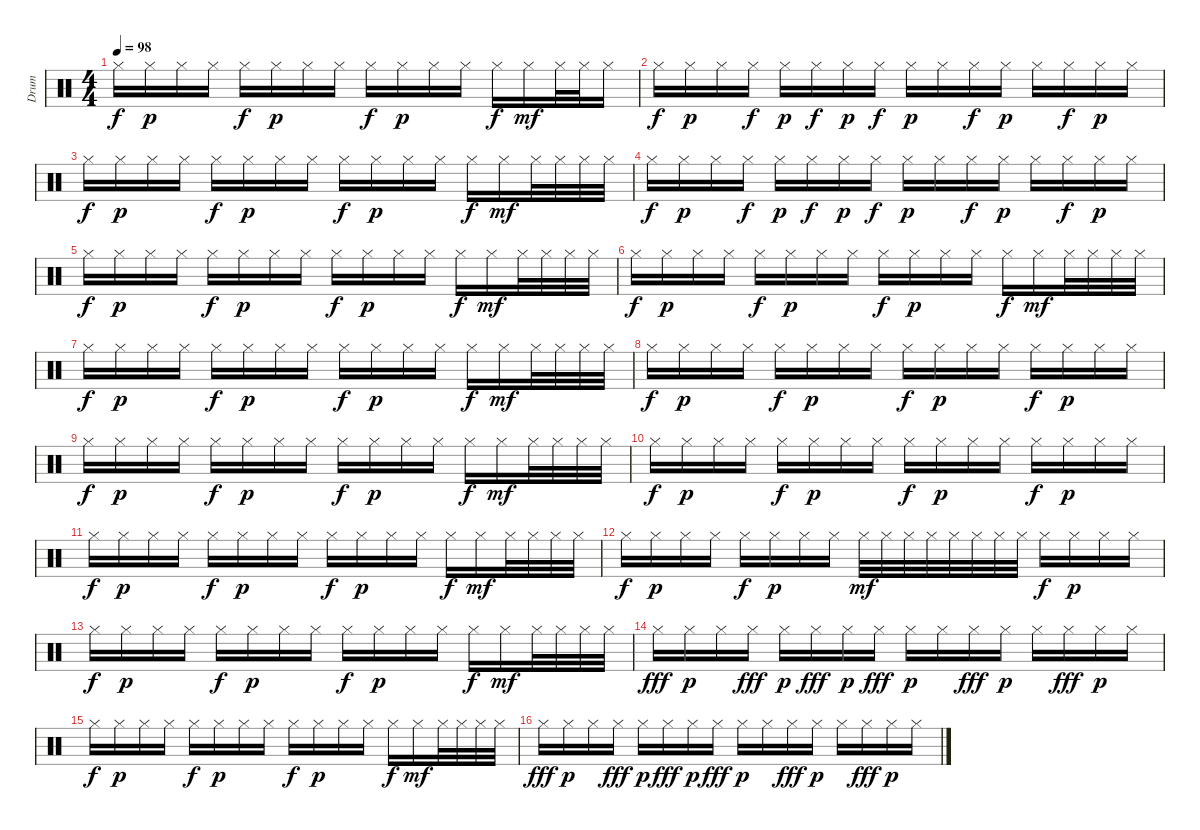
\track ("Drum" "Drum") {instrument percussion}
\staff {score}
\articulation defaults
\ts (4 4)
\tempo 98
\clef neutral
\ks c "Hi-Hat (closed)".16{dy f} "Hi-Hat (closed)".16{dy p} "Hi-Hat (closed)".16 "Hi-Hat (closed)".16 "Hi-Hat (closed)".16{dy f} "Hi-Hat (closed)".16{dy p} "Hi-Hat (closed)".16 "Hi-Hat (closed)".16 "Hi-Hat (closed)".16{dy f} "Hi-Hat (closed)".16{dy p} "Hi-Hat (closed)".16 "Hi-Hat (closed)".16 "Hi-Hat (closed)".16{dy f} "Hi-Hat (closed)".16{dy mf} "Hi-Hat (closed)".32 "Hi-Hat (closed)".32 "Hi-Hat (closed)".16
|
"Hi-Hat (closed)".16{dy f} "Hi-Hat (closed)".16{dy p} "Hi-Hat (closed)".16 "Hi-Hat (closed)".16{dy f} "Hi-Hat (closed)".16{dy p} "Hi-Hat (closed)".16{dy f} "Hi-Hat (closed)".16{dy p} "Hi-Hat (closed)".16{dy f} "Hi-Hat (closed)".16{dy p} "Hi-Hat (closed)".16 "Hi-Hat (closed)".16{dy f} "Hi-Hat (closed)".16{dy p} "Hi-Hat (closed)".16 "Hi-Hat (closed)".16{dy f} "Hi-Hat (closed)".16{dy p} "Hi-Hat (closed)".16 |
"Hi-Hat (closed)".16{dy f} "Hi-Hat (closed)".16{dy p} "Hi-Hat (closed)".16 "Hi-Hat (closed)".16 "Hi-Hat (closed)".16{dy f} "Hi-Hat (closed)".16{dy p} "Hi-Hat (closed)".16 "Hi-Hat (closed)".16 "Hi-Hat (closed)".16{dy f} "Hi-Hat (closed)".16{dy p} "Hi-Hat (closed)".16 "Hi-Hat (closed)".16 "Hi-Hat (closed)".16{dy f} "Hi-Hat (closed)".16{dy mf} "Hi-Hat (closed)".32 "Hi-Hat (closed)".32 "Hi-Hat (closed)".32 "Hi-Hat (closed)".32 |
"Hi-Hat (closed)".16{dy f} "Hi-Hat (closed)".16{dy p} "Hi-Hat (closed)".16 "Hi-Hat (closed)".16{dy f} "Hi-Hat (closed)".16{dy p} "Hi-Hat (closed)".16{dy f} "Hi-Hat (closed)".16{dy p} "Hi-Hat (closed)".16{dy f} "Hi-Hat (closed)".16{dy p} "Hi-Hat (closed)".16 "Hi-Hat (closed)".16{dy f} "Hi-Hat (closed)".16{dy p} "Hi-Hat (closed)".16 "Hi-Hat (closed)".16{dy f} "Hi-Hat (closed)".16{dy p} "Hi-Hat (closed)".16 |
"Hi-Hat (closed)".16{dy f} "Hi-Hat (closed)".16{dy p} "Hi-Hat (closed)".16 "Hi-Hat (closed)".16 "Hi-Hat (closed)".16{dy f} "Hi-Hat (closed)".16{dy p} "Hi-Hat (closed)".16 "Hi-Hat (closed)".16 "Hi-Hat (closed)".16{dy f} "Hi-Hat (closed)".16{dy p} "Hi-Hat (closed)".16 "Hi-Hat (closed)".16 "Hi-Hat (closed)".16{dy f} "Hi-Hat (closed)".16{dy mf} "Hi-Hat (closed)".32 "Hi-Hat (closed)".32 "Hi-Hat (closed)".32 "Hi-Hat (closed)".32 |
"Hi-Hat (closed)".16{dy f} "Hi-Hat (closed)".16{dy p} "Hi-Hat (closed)".16 "Hi-Hat (closed)".16 "Hi-Hat (closed)".16{dy f} "Hi-Hat (closed)".16{dy p} "Hi-Hat (closed)".16 "Hi-Hat (closed)".16 "Hi-Hat (closed)".16{dy f} "Hi-Hat (closed)".16{dy p} "Hi-Hat (closed)".16 "Hi-Hat (closed)".16 "Hi-Hat (closed)".16{dy f} "Hi-Hat (closed)".16{dy mf} "Hi-Hat (closed)".32 "Hi-Hat (closed)".32 "Hi-Hat (closed)".32 "Hi-Hat (closed)".32 |
"Hi-Hat (closed)".16{dy f} "Hi-Hat (closed)".16{dy p} "Hi-Hat (closed)".16 "Hi-Hat (closed)".16 "Hi-Hat (closed)".16{dy f} "Hi-Hat (closed)".16{dy p} "Hi-Hat (closed)".16 "Hi-Hat (closed)".16 "Hi-Hat (closed)".16{dy f} "Hi-Hat (closed)".16{dy p} "Hi-Hat (closed)".16 "Hi-Hat (closed)".16 "Hi-Hat (closed)".16{dy f} "Hi-Hat (closed)".16{dy mf} "Hi-Hat (closed)".32 "Hi-Hat (closed)".32 "Hi-Hat (closed)".32 "Hi-Hat (closed)".32 |
"Hi-Hat (closed)".16{dy f} "Hi-Hat (closed)".16{dy p} "Hi-Hat (closed)".16 "Hi-Hat (closed)".16 "Hi-Hat (closed)".16{dy f} "Hi-Hat (closed)".16{dy p} "Hi-Hat (closed)".16 "Hi-Hat (closed)".16 "Hi-Hat (closed)".16{dy f} "Hi-Hat (closed)".16{dy p} "Hi-Hat (closed)".16 "Hi-Hat (closed)".16 "Hi-Hat (closed)".16{dy f} "Hi-Hat (closed)".16{dy p} "Hi-Hat (closed)".16 "Hi-Hat (closed)".16 |
"Hi-Hat (closed)".16{dy f} "Hi-Hat (closed)".16{dy p} "Hi-Hat (closed)".16 "Hi-Hat (closed)".16 "Hi-Hat (closed)".16{dy f} "Hi-Hat (closed)".16{dy p} "Hi-Hat (closed)".16 "Hi-Hat (closed)".16 "Hi-Hat (closed)".16{dy f} "Hi-Hat (closed)".16{dy p} "Hi-Hat (closed)".16 "Hi-Hat (closed)".16 "Hi-Hat (closed)".16{dy f} "Hi-Hat (closed)".16{dy mf} "Hi-Hat (closed)".32 "Hi-Hat (closed)".32 "Hi-Hat (closed)".32 "Hi-Hat (closed)".32 |
"Hi-Hat (closed)".16{dy f} "Hi-Hat (closed)".16{dy p} "Hi-Hat (closed)".16 "Hi-Hat (closed)".16 "Hi-Hat (closed)".16{dy f} "Hi-Hat (closed)".16{dy p} "Hi-Hat (closed)".16 "Hi-Hat (closed)".16 "Hi-Hat (closed)".16{dy f} "Hi-Hat (closed)".16{dy p} "Hi-Hat (closed)".16 "Hi-Hat (closed)".16 "Hi-Hat (closed)".16{dy f} "Hi-Hat (closed)".16{dy p} "Hi-Hat (closed)".16 "Hi-Hat (closed)".16 |
"Hi-Hat (closed)".16{dy f} "Hi-Hat (closed)".16{dy p} "Hi-Hat (closed)".16 "Hi-Hat (closed)".16 "Hi-Hat (closed)".16{dy f} "Hi-Hat (closed)".16{dy p} "Hi-Hat (closed)".16 "Hi-Hat (closed)".16 "Hi-Hat (closed)".16{dy f} "Hi-Hat (closed)".16{dy p} "Hi-Hat (closed)".16 "Hi-Hat (closed)".16 "Hi-Hat (closed)".16{dy f} "Hi-Hat (closed)".16{dy mf} "Hi-Hat (closed)".32 "Hi-Hat (closed)".32 "Hi-Hat (closed)".32 "Hi-Hat (closed)".32 |
"Hi-Hat (closed)".16{dy f} "Hi-Hat (closed)".16{dy p} "Hi-Hat (closed)".16 "Hi-Hat (closed)".16 "Hi-Hat (closed)".16{dy f} "Hi-Hat (closed)".16{dy p} "Hi-Hat (closed)".16 "Hi-Hat (closed)".16 "Hi-Hat (closed)".32{dy mf} "Hi-Hat (closed)".32 "Hi-Hat (closed)".32 "Hi-Hat (closed)".32 "Hi-Hat (closed)".32 "Hi-Hat (closed)".32 "Hi-Hat (closed)".32 "Hi-Hat (closed)".32 "Hi-Hat (closed)".16{dy f} "Hi-Hat (closed)".16{dy p} "Hi-Hat (closed)".16 "Hi-Hat (closed)".16 |
"Hi-Hat (closed)".16{dy f} "Hi-Hat (closed)".16{dy p} "Hi-Hat (closed)".16 "Hi-Hat (closed)".16 "Hi-Hat (closed)".16{dy f} "Hi-Hat (closed)".16{dy p} "Hi-Hat (closed)".16 "Hi-Hat (closed)".16 "Hi-Hat (closed)".16{dy f} "Hi-Hat (closed)".16{dy p} "Hi-Hat (closed)".16 "Hi-Hat (closed)".16 "Hi-Hat (closed)".16{dy f} "Hi-Hat (closed)".16{dy mf} "Hi-Hat (closed)".32 "Hi-Hat (closed)".32 "Hi-Hat (closed)".32 "Hi-Hat (closed)".32 |
"Hi-Hat (closed)".16{dy fff} "Hi-Hat (closed)".16{dy p} "Hi-Hat (closed)".16 "Hi-Hat (closed)".16{dy fff} "Hi-Hat (closed)".16{dy p} "Hi-Hat (closed)".16{dy fff} "Hi-Hat (closed)".16{dy p} "Hi-Hat (closed)".16{dy fff} "Hi-Hat (closed)".16{dy p} "Hi-Hat (closed)".16 "Hi-Hat (closed)".16{dy fff} "Hi-Hat (closed)".16{dy p} "Hi-Hat (closed)".16 "Hi-Hat (closed)".16{dy fff} "Hi-Hat (closed)".16{dy p} "Hi-Hat (closed)".16 |
"Hi-Hat (closed)".16{dy f} "Hi-Hat (closed)".16{dy p} "Hi-Hat (closed)".16 "Hi-Hat (closed)".16 "Hi-Hat (closed)".16{dy f} "Hi-Hat (closed)".16{dy p} "Hi-Hat (closed)".16 "Hi-Hat (closed)".16 "Hi-Hat (closed)".16{dy f} "Hi-Hat (closed)".16{dy p} "Hi-Hat (closed)".16 "Hi-Hat (closed)".16 "Hi-Hat (closed)".16{dy f} "Hi-Hat (closed)".16{dy mf} "Hi-Hat (closed)".32 "Hi-Hat (closed)".32 "Hi-Hat (closed)".32 "Hi-Hat (closed)".32 |
"Hi-Hat (closed)".16{dy fff} "Hi-Hat (closed)".16{dy p} "Hi-Hat (closed)".16 "Hi-Hat (closed)".16{dy fff} "Hi-Hat (closed)".16{dy p} "Hi-Hat (closed)".16{dy fff} "Hi-Hat (closed)".16{dy p} "Hi-Hat (closed)".16{dy fff} "Hi-Hat (closed)".16{dy p} "Hi-Hat (closed)".16 "Hi-Hat (closed)".16{dy fff} "Hi-Hat (closed)".16{dy p} "Hi-Hat (closed)".16 "Hi-Hat (closed)".16{dy fff} "Hi-Hat (closed)".16{dy p} "Hi-Hat (closed)".16
